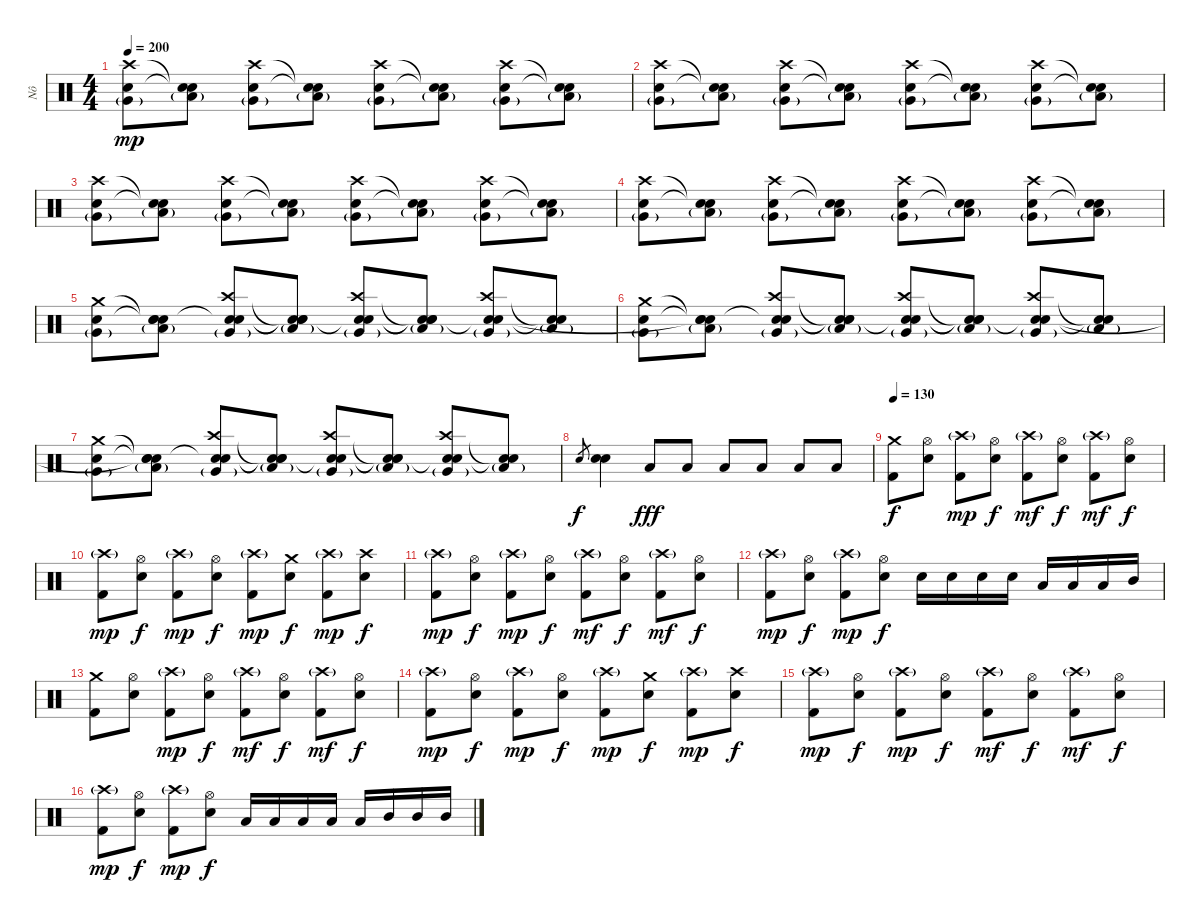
\track ("Nô" "Nô") {instrument percussion}
\staff {score}
\articulation defaults
\ts (4 4)
\tempo 200
\clef neutral
\ks c
("Very Low Tom (hit)"{g} "Electric Snare (hit)" "Crash high (hit)").8{dy mp} ("Low Floor Tom (hit)"{g} "Snare (hit)"{t} "Snare (hit)"{t}).8 ("Very Low Tom (hit)"{g} "Electric Snare (hit)" "Crash high (hit)").8 ("Low Floor Tom (hit)"{g} "Snare (hit)"{t} "Snare (hit)"{t}).8 ("Very Low Tom (hit)"{g} "Electric Snare (hit)" "Crash high (hit)").8 ("Low Floor Tom (hit)"{g} "Snare (hit)"{t} "Snare (hit)"{t}).8 ("Very Low Tom (hit)"{g} "Electric Snare (hit)" "Crash high (hit)").8 ("Low Floor Tom (hit)"{g} "Snare (hit)"{t} "Snare (hit)"{t}).8 |
("Very Low Tom (hit)"{g} "Electric Snare (hit)" "Crash high (hit)").8 ("Low Floor Tom (hit)"{g} "Snare (hit)"{t} "Snare (hit)"{t}).8 ("Very Low Tom (hit)"{g} "Electric Snare (hit)" "Crash high (hit)").8 ("Low Floor Tom (hit)"{g} "Snare (hit)"{t} "Snare (hit)"{t}).8 ("Very Low Tom (hit)"{g} "Electric Snare (hit)" "Crash high (hit)").8 ("Low Floor Tom (hit)"{g} "Snare (hit)"{t} "Snare (hit)"{t}).8 ("Very Low Tom (hit)"{g} "Electric Snare (hit)" "Crash high (hit)").8 ("Low Floor Tom (hit)"{g} "Snare (hit)"{t} "Snare (hit)"{t}).8 |
("Very Low Tom (hit)"{g} "Electric Snare (hit)" "Crash high (hit)").8 ("Low Floor Tom (hit)"{g} "Snare (hit)"{t} "Snare (hit)"{t}).8 ("Very Low Tom (hit)"{g} "Electric Snare (hit)" "Crash high (hit)").8 ("Low Floor Tom (hit)"{g} "Snare (hit)"{t} "Snare (hit)"{t}).8 ("Very Low Tom (hit)"{g} "Electric Snare (hit)" "Crash high (hit)").8 ("Low Floor Tom (hit)"{g} "Snare (hit)"{t} "Snare (hit)"{t}).8 ("Very Low Tom (hit)"{g} "Electric Snare (hit)" "Crash high (hit)").8 ("Low Floor Tom (hit)"{g} "Snare (hit)"{t} "Snare (hit)"{t}).8 |
("Very Low Tom (hit)"{g} "Electric Snare (hit)" "Crash high (hit)").8 ("Low Floor Tom (hit)"{g} "Snare (hit)"{t} "Snare (hit)"{t}).8 ("Very Low Tom (hit)"{g} "Electric Snare (hit)" "Crash high (hit)").8 ("Low Floor Tom (hit)"{g} "Snare (hit)"{t} "Snare (hit)"{t}).8 ("Very Low Tom (hit)"{g} "Electric Snare (hit)" "Crash high (hit)").8 ("Low Floor Tom (hit)"{g} "Snare (hit)"{t} "Snare (hit)"{t}).8 ("Very Low Tom (hit)"{g} "Electric Snare (hit)" "Crash high (hit)").8 ("Low Floor Tom (hit)"{g} "Snare (hit)"{t} "Snare (hit)"{t}).8 |
("Very Low Tom (hit)"{g} "Electric Snare (hit)" "Crash medium (hit)").8 ("Low Floor Tom (hit)"{g} "Snare (hit)"{t} "Snare (hit)"{t} "Snare (hit)").8 ("Very Low Tom (hit)"{g} "Electric Snare (hit)" "Crash high (hit)" "Snare (hit)"{t}).8 ("Low Floor Tom (hit)"{g} "Snare (hit)"{t} "Snare (hit)"{t} "Snare (hit)"{t}).8 ("Very Low Tom (hit)"{g} "Electric Snare (hit)" "Crash high (hit)" "Snare (hit)"{t}).8 ("Low Floor Tom (hit)"{g} "Snare (hit)"{t} "Snare (hit)"{t} "Snare (hit)"{t}).8 ("Very Low Tom (hit)"{g} "Electric Snare (hit)" "Crash high (hit)" "Snare (hit)"{t}).8 ("Low Floor Tom (hit)"{g} "Snare (hit)"{t} "Snare (hit)"{t}).8 |
("Very Low Tom (hit)"{g} "Electric Snare (hit)" "Crash medium (hit)").8 ("Low Floor Tom (hit)"{g} "Snare (hit)"{t} "Snare (hit)"{t} "Snare (hit)"{t}).8 ("Very Low Tom (hit)"{g} "Electric Snare (hit)" "Crash high (hit)" "Snare (hit)"{t}).8 ("Low Floor Tom (hit)"{g} "Snare (hit)"{t} "Snare (hit)"{t} "Snare (hit)"{t}).8 ("Very Low Tom (hit)"{g} "Electric Snare (hit)" "Crash high (hit)" "Snare (hit)"{t}).8 ("Low Floor Tom (hit)"{g} "Snare (hit)"{t} "Snare (hit)"{t} "Snare (hit)"{t}).8 ("Very Low Tom (hit)"{g} "Electric Snare (hit)" "Crash high (hit)" "Snare (hit)"{t}).8 ("Low Floor Tom (hit)"{g} "Snare (hit)"{t} "Snare (hit)"{t}).8 |
("Very Low Tom (hit)"{g} "Electric Snare (hit)" "Crash medium (hit)").8 ("Low Floor Tom (hit)"{g} "Snare (hit)"{t} "Snare (hit)"{t} "Snare (hit)"{t}).8 ("Very Low Tom (hit)"{g} "Electric Snare (hit)" "Crash high (hit)" "Snare (hit)"{t}).8 ("Low Floor Tom (hit)"{g} "Snare (hit)"{t} "Snare (hit)"{t} "Snare (hit)"{t}).8 ("Very Low Tom (hit)"{g} "Electric Snare (hit)" "Crash high (hit)" "Snare (hit)"{t}).8 ("Low Floor Tom (hit)"{g} "Snare (hit)"{t} "Snare (hit)"{t} "Snare (hit)"{t}).8 ("Very Low Tom (hit)"{g} "Electric Snare (hit)" "Crash high (hit)" "Snare (hit)"{t}).8 ("Low Floor Tom (hit)"{g} "Snare (hit)"{t} "Snare (hit)"{t}).8 |
"Electric Snare (hit)".8{gr dy f} ("Electric Snare (hit)" "Electric Snare (hit)").4 "Low Tom (hit)".8{dy fff} "Low Tom (hit)".8 "Low Tom (hit)".8 "Low Tom (hit)".8 "Low Tom (hit)".8 "Low Tom (hit)".8 |
\tempo 130
("Crash medium (hit)" "Kick (hit) 2").8{dy f} ("Hi-Hat (open)" "Electric Snare (hit)").8 ("Crash high (hit)"{g} "Kick (hit) 2").8{dy mp} ("Hi-Hat (open)" "Electric Snare (hit)").8{dy f} ("Crash high (hit)"{g} "Kick (hit) 2").8{dy mf} ("Hi-Hat (open)" "Electric Snare (hit)").8{dy f} ("Crash high (hit)"{g} "Kick (hit) 2").8{dy mf} ("Hi-Hat (open)" "Electric Snare (hit)").8{dy f} |
("Crash high (hit)"{g} "Kick (hit) 2").8{dy mp} ("Hi-Hat (open)" "Electric Snare (hit)").8{dy f} ("Crash high (hit)"{g} "Kick (hit) 2").8{dy mp} ("Hi-Hat (open)" "Electric Snare (hit)").8{dy f} ("Crash high (hit)"{g} "Kick (hit) 2").8{dy mp} ("Crash medium (hit)" "Electric Snare (hit)").8{dy f} ("Crash high (hit)"{g} "Kick (hit) 2").8{dy mp} ("Crash high (hit)" "Electric Snare (hit)").8{dy f} |
("Crash high (hit)"{g} "Kick (hit) 2").8{dy mp} ("Hi-Hat (open)" "Electric Snare (hit)").8{dy f} ("Crash high (hit)"{g} "Kick (hit) 2").8{dy mp} ("Hi-Hat (open)" "Electric Snare (hit)").8{dy f} ("Crash high (hit)"{g} "Kick (hit) 2").8{dy mf} ("Hi-Hat (open)" "Electric Snare (hit)").8{dy f} ("Crash high (hit)"{g} "Kick (hit) 2").8{dy mf} ("Hi-Hat (open)" "Electric Snare (hit)").8{dy f} |
("Crash high (hit)"{g} "Kick (hit) 2").8{dy mp} ("Hi-Hat (open)" "Electric Snare (hit)").8{dy f} ("Crash high (hit)"{g} "Kick (hit) 2").8{dy mp} ("Hi-Hat (open)" "Electric Snare (hit)").8{dy f} "Electric Snare (hit)".16 "Electric Snare (hit)".16 "Electric Snare (hit)".16 "Electric Snare (hit)".16 "Low Tom (hit)".16 "Low Tom (hit)".16 "Low Tom (hit)".16 "Mid Tom (hit)".16 |
("Crash medium (hit)" "Kick (hit) 2").8 ("Hi-Hat (open)" "Electric Snare (hit)").8 ("Crash high (hit)"{g} "Kick (hit) 2").8{dy mp} ("Hi-Hat (open)" "Electric Snare (hit)").8{dy f} ("Crash high (hit)"{g} "Kick (hit) 2").8{dy mf} ("Hi-Hat (open)" "Electric Snare (hit)").8{dy f} ("Crash high (hit)"{g} "Kick (hit) 2").8{dy mf} ("Hi-Hat (open)" "Electric Snare (hit)").8{dy f} |
("Crash high (hit)"{g} "Kick (hit) 2").8{dy mp} ("Hi-Hat (open)" "Electric Snare (hit)").8{dy f} ("Crash high (hit)"{g} "Kick (hit) 2").8{dy mp} ("Hi-Hat (open)" "Electric Snare (hit)").8{dy f} ("Crash high (hit)"{g} "Kick (hit) 2").8{dy mp} ("Crash medium (hit)" "Electric Snare (hit)").8{dy f} ("Crash high (hit)"{g} "Kick (hit) 2").8{dy mp} ("Crash high (hit)" "Electric Snare (hit)").8{dy f} |
("Crash high (hit)"{g} "Kick (hit) 2").8{dy mp} ("Hi-Hat (open)" "Electric Snare (hit)").8{dy f} ("Crash high (hit)"{g} "Kick (hit) 2").8{dy mp} ("Hi-Hat (open)" "Electric Snare (hit)").8{dy f} ("Crash high (hit)"{g} "Kick (hit) 2").8{dy mf} ("Hi-Hat (open)" "Electric Snare (hit)").8{dy f} ("Crash high (hit)"{g} "Kick (hit) 2").8{dy mf} ("Hi-Hat (open)" "Electric Snare (hit)").8{dy f} |
("Crash high (hit)"{g} "Kick (hit) 2").8{dy mp} ("Hi-Hat (open)" "Electric Snare (hit)").8{dy f} ("Crash high (hit)"{g} "Kick (hit) 2").8{dy mp} ("Hi-Hat (open)" "Electric Snare (hit)").8{dy f} "Low Tom (hit)".16 "Low Tom (hit)".16 "Low Tom (hit)".16 "Low Tom (hit)".16 "Low Tom (hit)".16 "Mid Tom (hit)".16 "Mid Tom (hit)".16 "Mid Tom (hit)".16
